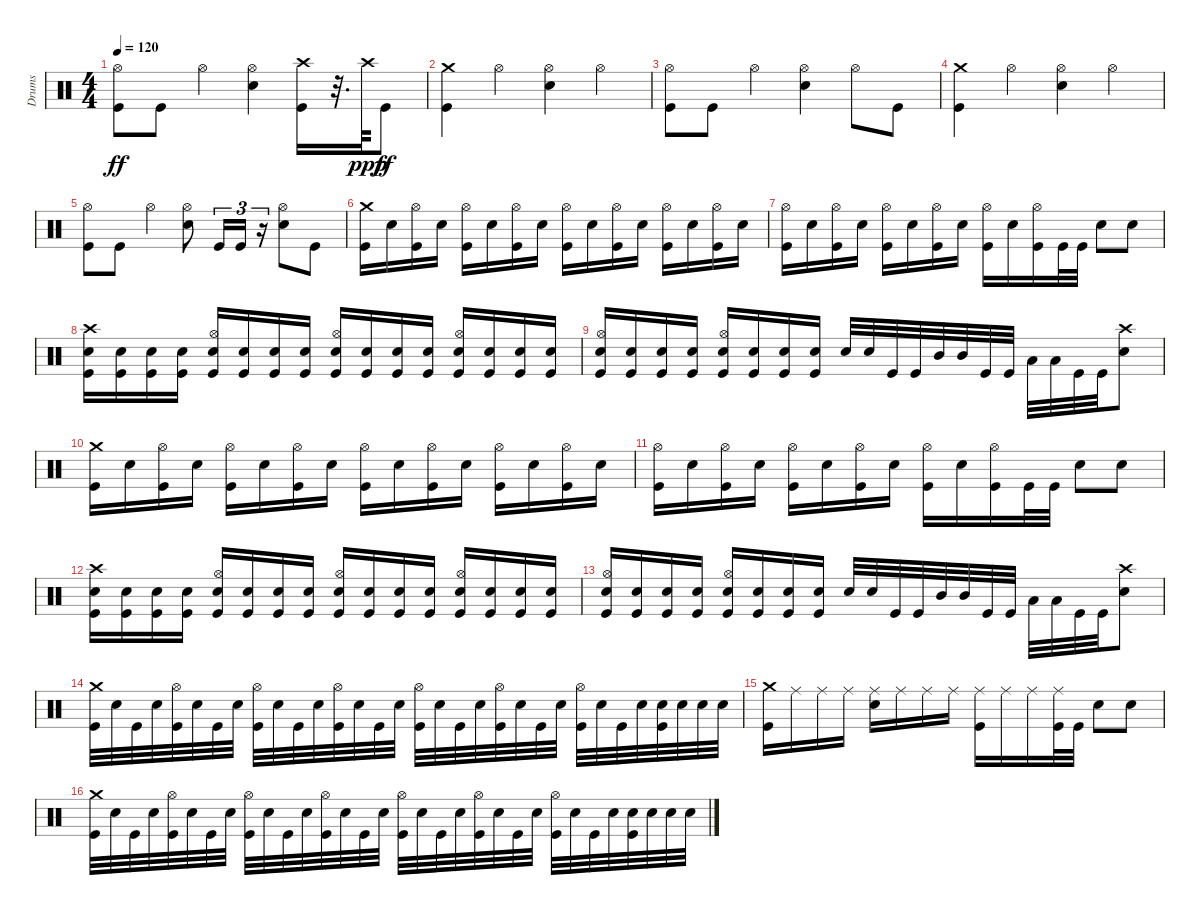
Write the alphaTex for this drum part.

\track ("Drums" "Drums") {instrument percussion}
\staff {score}
\articulation defaults
\ts (4 4)
\tempo 120
\clef neutral
\ks c
("Kick (hit)" "Hi-Hat (open)").8{dy ff} "Kick (hit)".8 "Hi-Hat (open)".4 ("Hi-Hat (open)" "Snare (hit) 2").4 ("Kick (hit)" "Crash high (hit)").16 r.32{d} "Crash high (hit)".64{dy ppp} "Kick (hit)".8{dy ff} |
("Kick (hit)" "Crash medium (hit)").4 "Hi-Hat (open)".4 ("Hi-Hat (open)" "Snare (hit) 2").4 "Hi-Hat (open)".4 |
("Kick (hit)" "Hi-Hat (open)").8 "Kick (hit)".8 "Hi-Hat (open)".4 ("Hi-Hat (open)" "Snare (hit) 2").4 "Hi-Hat (open)".8 "Kick (hit)".8 |
("Kick (hit)" "Crash medium (hit)").4 "Hi-Hat (open)".4 ("Hi-Hat (open)" "Snare (hit) 2").4 "Hi-Hat (open)".4 |
("Kick (hit)" "Hi-Hat (open)").8 "Kick (hit)".8 "Hi-Hat (open)".4 ("Hi-Hat (open)" "Snare (hit) 2").8 "Kick (hit)".16{tu (3 2)} "Kick (hit)".16{tu (3 2)} r.16{tu (3 2)} ("Snare (hit) 2" "Hi-Hat (open)").8 "Kick (hit)".8 |
("Kick (hit)" "Crash medium (hit)").16 "Snare (hit) 2".16 ("Kick (hit)" "Hi-Hat (open)").16 "Snare (hit) 2".16 ("Hi-Hat (open)" "Kick (hit)").16 "Snare (hit) 2".16 ("Kick (hit)" "Hi-Hat (open)").16 "Snare (hit) 2".16 ("Hi-Hat (open)" "Kick (hit)").16 "Snare (hit) 2".16 ("Kick (hit)" "Hi-Hat (open)").16 "Snare (hit) 2".16 ("Kick (hit)" "Hi-Hat (open)").16 "Snare (hit) 2".16 ("Kick (hit)" "Hi-Hat (open)").16 "Snare (hit) 2".16 |
("Kick (hit)" "Hi-Hat (open)").16 "Snare (hit) 2".16 ("Kick (hit)" "Hi-Hat (open)").16 "Snare (hit) 2".16 ("Hi-Hat (open)" "Kick (hit)").16 "Snare (hit) 2".16 ("Kick (hit)" "Hi-Hat (open)").16 "Snare (hit) 2".16 ("Hi-Hat (open)" "Kick (hit)").16 "Snare (hit) 2".16 ("Kick (hit)" "Hi-Hat (open)").16 "Kick (hit)".32 "Kick (hit)".32 "Snare (hit) 2".8 "Snare (hit) 2".8 |
("Kick (hit)" "Snare (hit) 2" "Crash high (hit)").16 ("Snare (hit) 2" "Kick (hit)").16 ("Snare (hit) 2" "Kick (hit)").16 ("Snare (hit) 2" "Kick (hit)").16 ("Snare (hit) 2" "Kick (hit)" "Hi-Hat (open)").16 ("Snare (hit) 2" "Kick (hit)").16 ("Snare (hit) 2" "Kick (hit)").16 ("Snare (hit) 2" "Kick (hit)").16 ("Snare (hit) 2" "Kick (hit)" "Hi-Hat (open)").16 ("Snare (hit) 2" "Kick (hit)").16 ("Snare (hit) 2" "Kick (hit)").16 ("Snare (hit) 2" "Kick (hit)").16 ("Snare (hit) 2" "Kick (hit)" "Hi-Hat (open)").16 ("Snare (hit) 2" "Kick (hit)").16 ("Snare (hit) 2" "Kick (hit)").16 ("Snare (hit) 2" "Kick (hit)").16 |
("Snare (hit) 2" "Kick (hit)" "Hi-Hat (open)").16 ("Snare (hit) 2" "Kick (hit)").16 ("Snare (hit) 2" "Kick (hit)").16 ("Snare (hit) 2" "Kick (hit)").16 ("Snare (hit) 2" "Kick (hit)" "Hi-Hat (open)").16 ("Snare (hit) 2" "Kick (hit)").16 ("Snare (hit) 2" "Kick (hit)").16 ("Snare (hit) 2" "Kick (hit)").16 "Snare (hit) 2".32 "Snare (hit) 2".32 "Kick (hit)".32 "Kick (hit)".32 "Mid Tom (hit)".32 "Mid Tom (hit)".32 "Kick (hit)".32 "Kick (hit)".32 "Low Tom (hit)".32 "Low Tom (hit)".32 "Kick (hit)".32 "Kick (hit)".32 ("Snare (hit) 2" "Crash high (hit)").8 |
("Kick (hit)" "Crash medium (hit)").16 "Snare (hit) 2".16 ("Kick (hit)" "Hi-Hat (open)").16 "Snare (hit) 2".16 ("Hi-Hat (open)" "Kick (hit)").16 "Snare (hit) 2".16 ("Kick (hit)" "Hi-Hat (open)").16 "Snare (hit) 2".16 ("Hi-Hat (open)" "Kick (hit)").16 "Snare (hit) 2".16 ("Kick (hit)" "Hi-Hat (open)").16 "Snare (hit) 2".16 ("Kick (hit)" "Hi-Hat (open)").16 "Snare (hit) 2".16 ("Kick (hit)" "Hi-Hat (open)").16 "Snare (hit) 2".16 |
("Kick (hit)" "Hi-Hat (open)").16 "Snare (hit) 2".16 ("Kick (hit)" "Hi-Hat (open)").16 "Snare (hit) 2".16 ("Hi-Hat (open)" "Kick (hit)").16 "Snare (hit) 2".16 ("Kick (hit)" "Hi-Hat (open)").16 "Snare (hit) 2".16 ("Hi-Hat (open)" "Kick (hit)").16 "Snare (hit) 2".16 ("Kick (hit)" "Hi-Hat (open)").16 "Kick (hit)".32 "Kick (hit)".32 "Snare (hit) 2".8 "Snare (hit) 2".8 |
("Kick (hit)" "Snare (hit) 2" "Crash high (hit)").16 ("Snare (hit) 2" "Kick (hit)").16 ("Snare (hit) 2" "Kick (hit)").16 ("Snare (hit) 2" "Kick (hit)").16 ("Snare (hit) 2" "Kick (hit)" "Hi-Hat (open)").16 ("Snare (hit) 2" "Kick (hit)").16 ("Snare (hit) 2" "Kick (hit)").16 ("Snare (hit) 2" "Kick (hit)").16 ("Snare (hit) 2" "Kick (hit)" "Hi-Hat (open)").16 ("Snare (hit) 2" "Kick (hit)").16 ("Snare (hit) 2" "Kick (hit)").16 ("Snare (hit) 2" "Kick (hit)").16 ("Snare (hit) 2" "Kick (hit)" "Hi-Hat (open)").16 ("Snare (hit) 2" "Kick (hit)").16 ("Snare (hit) 2" "Kick (hit)").16 ("Snare (hit) 2" "Kick (hit)").16 |
("Snare (hit) 2" "Kick (hit)" "Hi-Hat (open)").16 ("Snare (hit) 2" "Kick (hit)").16 ("Snare (hit) 2" "Kick (hit)").16 ("Snare (hit) 2" "Kick (hit)").16 ("Snare (hit) 2" "Kick (hit)" "Hi-Hat (open)").16 ("Snare (hit) 2" "Kick (hit)").16 ("Snare (hit) 2" "Kick (hit)").16 ("Snare (hit) 2" "Kick (hit)").16 "Snare (hit) 2".32 "Snare (hit) 2".32 "Kick (hit)".32 "Kick (hit)".32 "Mid Tom (hit)".32 "Mid Tom (hit)".32 "Kick (hit)".32 "Kick (hit)".32 "Low Tom (hit)".32 "Low Tom (hit)".32 "Kick (hit)".32 "Kick (hit)".32 ("Snare (hit) 2" "Crash high (hit)").8 |
("Kick (hit)" "Crash medium (hit)").32 "Snare (hit) 2".32 "Kick (hit)".32 "Snare (hit) 2".32 ("Kick (hit)" "Hi-Hat (open)").32 "Snare (hit) 2".32 "Kick (hit)".32 "Snare (hit) 2".32 ("Kick (hit)" "Hi-Hat (open)").32 "Snare (hit) 2".32 "Kick (hit)".32 "Snare (hit) 2".32 ("Kick (hit)" "Hi-Hat (open)").32 "Snare (hit) 2".32 "Kick (hit)".32 "Snare (hit) 2".32 ("Kick (hit)" "Hi-Hat (open)").32 "Snare (hit) 2".32 "Kick (hit)".32 "Snare (hit) 2".32 ("Kick (hit)" "Hi-Hat (open)").32 "Snare (hit) 2".32 "Kick (hit)".32 "Snare (hit) 2".32 ("Kick (hit)" "Hi-Hat (open)").32 "Snare (hit) 2".32 "Kick (hit)".32 "Snare (hit) 2".32 ("Snare (hit) 2" "Kick (hit)").32 "Snare (hit) 2".32 "Snare (hit) 2".32 "Snare (hit) 2".32 |
("Kick (hit)" "Crash medium (hit)").16 "Ride (middle)".16 "Ride (middle)".16 "Ride (middle)".16 ("Ride (middle)" "Snare (hit) 2").16 "Ride (middle)".16 "Ride (middle)".16 "Ride (middle)".16 ("Ride (middle)" "Kick (hit)").16 "Ride (middle)".16 "Ride (middle)".16 ("Kick (hit)" "Ride (middle)").32 "Kick (hit)".32 "Snare (hit) 2".8 "Snare (hit) 2".8 |
("Kick (hit)" "Crash medium (hit)").32 "Snare (hit) 2".32 "Kick (hit)".32 "Snare (hit) 2".32 ("Kick (hit)" "Hi-Hat (open)").32 "Snare (hit) 2".32 "Kick (hit)".32 "Snare (hit) 2".32 ("Kick (hit)" "Hi-Hat (open)").32 "Snare (hit) 2".32 "Kick (hit)".32 "Snare (hit) 2".32 ("Kick (hit)" "Hi-Hat (open)").32 "Snare (hit) 2".32 "Kick (hit)".32 "Snare (hit) 2".32 ("Kick (hit)" "Hi-Hat (open)").32 "Snare (hit) 2".32 "Kick (hit)".32 "Snare (hit) 2".32 ("Kick (hit)" "Hi-Hat (open)").32 "Snare (hit) 2".32 "Kick (hit)".32 "Snare (hit) 2".32 ("Kick (hit)" "Hi-Hat (open)").32 "Snare (hit) 2".32 "Kick (hit)".32 "Snare (hit) 2".32 ("Snare (hit) 2" "Kick (hit)").32 "Snare (hit) 2".32 "Snare (hit) 2".32 "Snare (hit) 2".32
